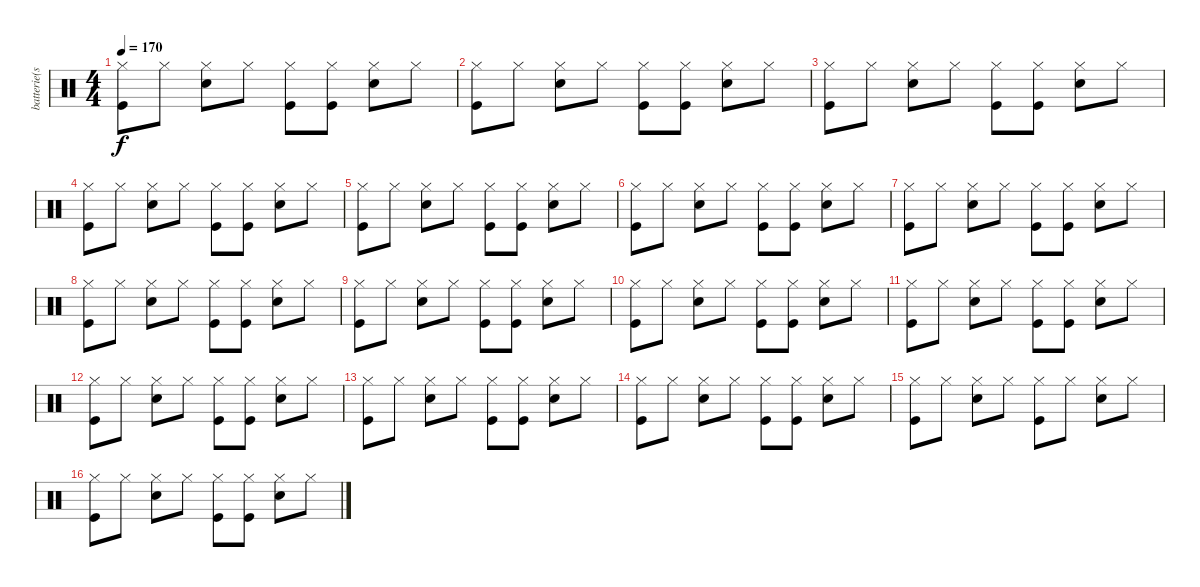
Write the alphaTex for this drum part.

\track ("batterie(steve)" "batterie(s") {instrument percussion}
\staff {score}
\articulation defaults
\ts (4 4)
\tempo 170
\clef neutral
\ks c
("Hi-Hat (closed)" "Kick (hit)").8{dy f} "Hi-Hat (closed)".8 ("Hi-Hat (closed)" "Snare (hit) 2").8 "Hi-Hat (closed)".8 ("Hi-Hat (closed)" "Kick (hit)").8 ("Hi-Hat (closed)" "Kick (hit)").8 ("Hi-Hat (closed)" "Snare (hit) 2").8 "Hi-Hat (closed)".8 |
("Hi-Hat (closed)" "Kick (hit)").8 "Hi-Hat (closed)".8 ("Hi-Hat (closed)" "Snare (hit) 2").8 "Hi-Hat (closed)".8 ("Hi-Hat (closed)" "Kick (hit)").8 ("Hi-Hat (closed)" "Kick (hit)").8 ("Hi-Hat (closed)" "Snare (hit) 2").8 "Hi-Hat (closed)".8 |
("Hi-Hat (closed)" "Kick (hit)").8 "Hi-Hat (closed)".8 ("Hi-Hat (closed)" "Snare (hit) 2").8 "Hi-Hat (closed)".8 ("Hi-Hat (closed)" "Kick (hit)").8 ("Hi-Hat (closed)" "Kick (hit)").8 ("Hi-Hat (closed)" "Snare (hit) 2").8 "Hi-Hat (closed)".8 |
("Hi-Hat (closed)" "Kick (hit)").8 "Hi-Hat (closed)".8 ("Hi-Hat (closed)" "Snare (hit) 2").8 "Hi-Hat (closed)".8 ("Hi-Hat (closed)" "Kick (hit)").8 ("Hi-Hat (closed)" "Kick (hit)").8 ("Hi-Hat (closed)" "Snare (hit) 2").8 "Hi-Hat (closed)".8 |
("Hi-Hat (closed)" "Kick (hit)").8 "Hi-Hat (closed)".8 ("Hi-Hat (closed)" "Snare (hit) 2").8 "Hi-Hat (closed)".8 ("Hi-Hat (closed)" "Kick (hit)").8 ("Hi-Hat (closed)" "Kick (hit)").8 ("Hi-Hat (closed)" "Snare (hit) 2").8 "Hi-Hat (closed)".8 |
("Hi-Hat (closed)" "Kick (hit)").8{volume 6} "Hi-Hat (closed)".8 ("Hi-Hat (closed)" "Snare (hit) 2").8 "Hi-Hat (closed)".8 ("Hi-Hat (closed)" "Kick (hit)").8 ("Hi-Hat (closed)" "Kick (hit)").8 ("Hi-Hat (closed)" "Snare (hit) 2").8 "Hi-Hat (closed)".8 |
("Hi-Hat (closed)" "Kick (hit)").8 "Hi-Hat (closed)".8 ("Hi-Hat (closed)" "Snare (hit) 2").8 "Hi-Hat (closed)".8 ("Hi-Hat (closed)" "Kick (hit)").8 ("Hi-Hat (closed)" "Kick (hit)").8 ("Hi-Hat (closed)" "Snare (hit) 2").8 "Hi-Hat (closed)".8 |
("Hi-Hat (closed)" "Kick (hit)").8 "Hi-Hat (closed)".8 ("Hi-Hat (closed)" "Snare (hit) 2").8 "Hi-Hat (closed)".8 ("Hi-Hat (closed)" "Kick (hit)").8 ("Hi-Hat (closed)" "Kick (hit)").8 ("Hi-Hat (closed)" "Snare (hit) 2").8 "Hi-Hat (closed)".8 |
("Hi-Hat (closed)" "Kick (hit)").8 "Hi-Hat (closed)".8 ("Hi-Hat (closed)" "Snare (hit) 2").8 "Hi-Hat (closed)".8 ("Hi-Hat (closed)" "Kick (hit)").8 ("Hi-Hat (closed)" "Kick (hit)").8 ("Hi-Hat (closed)" "Snare (hit) 2").8 "Hi-Hat (closed)".8 |
("Hi-Hat (closed)" "Kick (hit)").8 "Hi-Hat (closed)".8 ("Hi-Hat (closed)" "Snare (hit) 2").8 "Hi-Hat (closed)".8 ("Hi-Hat (closed)" "Kick (hit)").8 ("Hi-Hat (closed)" "Kick (hit)").8 ("Hi-Hat (closed)" "Snare (hit) 2").8 "Hi-Hat (closed)".8 |
("Hi-Hat (closed)" "Kick (hit)").8 "Hi-Hat (closed)".8 ("Hi-Hat (closed)" "Snare (hit) 2").8 "Hi-Hat (closed)".8 ("Hi-Hat (closed)" "Kick (hit)").8 ("Hi-Hat (closed)" "Kick (hit)").8 ("Hi-Hat (closed)" "Snare (hit) 2").8 "Hi-Hat (closed)".8 |
("Hi-Hat (closed)" "Kick (hit)").8 "Hi-Hat (closed)".8 ("Hi-Hat (closed)" "Snare (hit) 2").8 "Hi-Hat (closed)".8 ("Hi-Hat (closed)" "Kick (hit)").8 ("Hi-Hat (closed)" "Kick (hit)").8 ("Hi-Hat (closed)" "Snare (hit) 2").8 "Hi-Hat (closed)".8 |
("Hi-Hat (closed)" "Kick (hit)").8 "Hi-Hat (closed)".8 ("Hi-Hat (closed)" "Snare (hit) 2").8 "Hi-Hat (closed)".8 ("Hi-Hat (closed)" "Kick (hit)").8 ("Hi-Hat (closed)" "Kick (hit)").8 ("Hi-Hat (closed)" "Snare (hit) 2").8 "Hi-Hat (closed)".8 |
("Hi-Hat (closed)" "Kick (hit)").8{volume 4} "Hi-Hat (closed)".8 ("Hi-Hat (closed)" "Snare (hit) 2").8 "Hi-Hat (closed)".8 ("Hi-Hat (closed)" "Kick (hit)").8 ("Hi-Hat (closed)" "Kick (hit)").8 ("Hi-Hat (closed)" "Snare (hit) 2").8 "Hi-Hat (closed)".8 |
("Hi-Hat (closed)" "Kick (hit)").8 "Hi-Hat (closed)".8 ("Hi-Hat (closed)" "Snare (hit) 2").8 "Hi-Hat (closed)".8 ("Hi-Hat (closed)" "Kick (hit)").8 "Hi-Hat (closed)".8 ("Hi-Hat (closed)" "Snare (hit) 2").8 "Hi-Hat (closed)".8 |
("Hi-Hat (closed)" "Kick (hit)").8 "Hi-Hat (closed)".8 ("Hi-Hat (closed)" "Snare (hit) 2").8 "Hi-Hat (closed)".8 ("Hi-Hat (closed)" "Kick (hit)").8 ("Hi-Hat (closed)" "Kick (hit)").8 ("Hi-Hat (closed)" "Snare (hit) 2").8 "Hi-Hat (closed)".8
